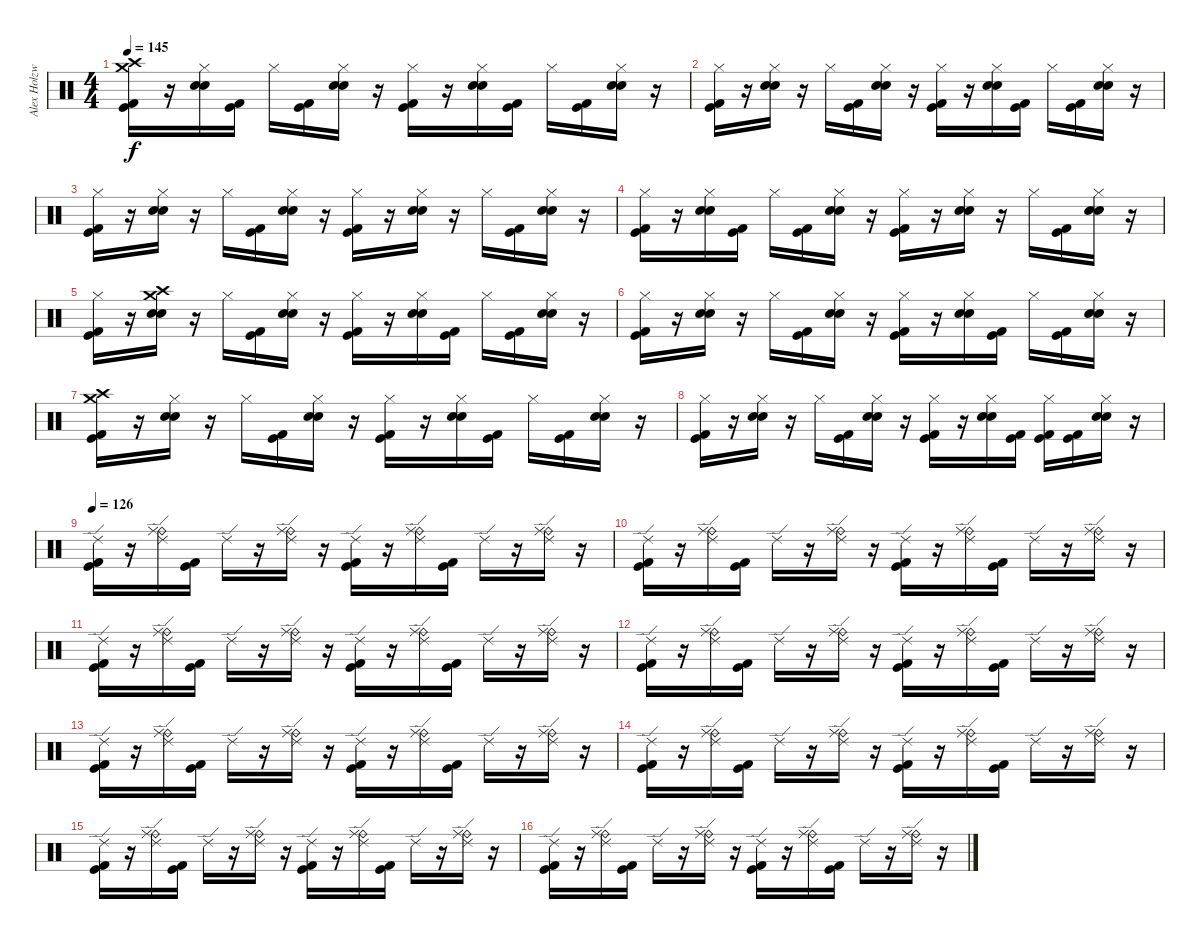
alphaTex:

\track ("Alex Holzwarth" "Alex Holzw") {instrument percussion}
\staff {score}
\articulation defaults
\ts (4 4)
\tempo 145
\clef neutral
\ks c
("Crash medium (hit)" "Crash high (hit)" "Kick (hit) 2" "Kick (hit)").16{dy f} r.16 ("Hi-Hat (closed)" "Electric Snare (hit)" "Snare (hit) 2").16 ("Kick (hit) 2" "Kick (hit)").16 "Hi-Hat (closed)".16 ("Kick (hit) 2" "Kick (hit)").16 ("Electric Snare (hit)" "Snare (hit) 2" "Hi-Hat (closed)").16 r.16 ("Hi-Hat (closed)" "Kick (hit) 2" "Kick (hit)").16 r.16 ("Hi-Hat (closed)" "Electric Snare (hit)" "Snare (hit) 2").16 ("Kick (hit) 2" "Kick (hit)").16 "Hi-Hat (closed)".16 ("Kick (hit) 2" "Kick (hit)").16 ("Electric Snare (hit)" "Snare (hit) 2" "Hi-Hat (closed)").16 r.16 |
("Hi-Hat (closed)" "Kick (hit) 2" "Kick (hit)").16 r.16 ("Hi-Hat (closed)" "Electric Snare (hit)" "Snare (hit) 2").16 r.16 "Hi-Hat (closed)".16 ("Kick (hit) 2" "Kick (hit)").16 ("Electric Snare (hit)" "Snare (hit) 2" "Hi-Hat (closed)").16 r.16 ("Hi-Hat (closed)" "Kick (hit) 2" "Kick (hit)").16 r.16 ("Hi-Hat (closed)" "Electric Snare (hit)" "Snare (hit) 2").16 ("Kick (hit) 2" "Kick (hit)").16 "Hi-Hat (closed)".16 ("Kick (hit) 2" "Kick (hit)").16 ("Electric Snare (hit)" "Snare (hit) 2" "Hi-Hat (closed)").16 r.16 |
("Hi-Hat (closed)" "Kick (hit) 2" "Kick (hit)").16 r.16 ("Hi-Hat (closed)" "Electric Snare (hit)" "Snare (hit) 2").16 r.16 "Hi-Hat (closed)".16 ("Kick (hit) 2" "Kick (hit)").16 ("Electric Snare (hit)" "Snare (hit) 2" "Hi-Hat (closed)").16 r.16 ("Hi-Hat (closed)" "Kick (hit) 2" "Kick (hit)").16 r.16 ("Hi-Hat (closed)" "Electric Snare (hit)" "Snare (hit) 2").16 r.16 "Hi-Hat (closed)".16 ("Kick (hit) 2" "Kick (hit)").16 ("Electric Snare (hit)" "Snare (hit) 2" "Hi-Hat (closed)").16 r.16 |
("Hi-Hat (closed)" "Kick (hit) 2" "Kick (hit)").16 r.16 ("Hi-Hat (closed)" "Electric Snare (hit)" "Snare (hit) 2").16 ("Kick (hit) 2" "Kick (hit)").16 "Hi-Hat (closed)".16 ("Kick (hit) 2" "Kick (hit)").16 ("Electric Snare (hit)" "Snare (hit) 2" "Hi-Hat (closed)").16 r.16 ("Hi-Hat (closed)" "Kick (hit) 2" "Kick (hit)").16 r.16 ("Hi-Hat (closed)" "Electric Snare (hit)" "Snare (hit) 2").16 r.16 "Hi-Hat (closed)".16 ("Kick (hit) 2" "Kick (hit)").16 ("Electric Snare (hit)" "Snare (hit) 2" "Hi-Hat (closed)").16 r.16 |
("Hi-Hat (closed)" "Kick (hit) 2" "Kick (hit)").16 r.16 ("Crash high (hit)" "Crash medium (hit)" "Electric Snare (hit)" "Snare (hit) 2").16 r.16 "Hi-Hat (closed)".16 ("Kick (hit) 2" "Kick (hit)").16 ("Electric Snare (hit)" "Snare (hit) 2" "Hi-Hat (closed)").16 r.16 ("Hi-Hat (closed)" "Kick (hit) 2" "Kick (hit)").16 r.16 ("Hi-Hat (closed)" "Electric Snare (hit)" "Snare (hit) 2").16 ("Kick (hit) 2" "Kick (hit)").16 "Hi-Hat (closed)".16 ("Kick (hit) 2" "Kick (hit)").16 ("Electric Snare (hit)" "Snare (hit) 2" "Hi-Hat (closed)").16 r.16 |
("Hi-Hat (closed)" "Kick (hit) 2" "Kick (hit)").16 r.16 ("Hi-Hat (closed)" "Electric Snare (hit)" "Snare (hit) 2").16 r.16 "Hi-Hat (closed)".16 ("Kick (hit) 2" "Kick (hit)").16 ("Electric Snare (hit)" "Snare (hit) 2" "Hi-Hat (closed)").16 r.16 ("Hi-Hat (closed)" "Kick (hit) 2" "Kick (hit)").16 r.16 ("Hi-Hat (closed)" "Electric Snare (hit)" "Snare (hit) 2").16 ("Kick (hit) 2" "Kick (hit)").16 "Hi-Hat (closed)".16 ("Kick (hit) 2" "Kick (hit)").16 ("Electric Snare (hit)" "Snare (hit) 2" "Hi-Hat (closed)").16 r.16 |
("Crash high (hit)" "Crash medium (hit)" "Kick (hit) 2" "Kick (hit)").16 r.16 ("Hi-Hat (closed)" "Electric Snare (hit)" "Snare (hit) 2").16 r.16 "Hi-Hat (closed)".16 ("Kick (hit) 2" "Kick (hit)").16 ("Electric Snare (hit)" "Snare (hit) 2" "Hi-Hat (closed)").16 r.16 ("Hi-Hat (closed)" "Kick (hit) 2" "Kick (hit)").16 r.16 ("Hi-Hat (closed)" "Electric Snare (hit)" "Snare (hit) 2").16 ("Kick (hit) 2" "Kick (hit)").16 "Hi-Hat (closed)".16 ("Kick (hit) 2" "Kick (hit)").16 ("Electric Snare (hit)" "Snare (hit) 2" "Hi-Hat (closed)").16 r.16 |
("Hi-Hat (closed)" "Kick (hit) 2" "Kick (hit)").16 r.16 ("Hi-Hat (closed)" "Electric Snare (hit)" "Snare (hit) 2").16 r.16 "Hi-Hat (closed)".16 ("Kick (hit) 2" "Kick (hit)").16 ("Electric Snare (hit)" "Snare (hit) 2" "Hi-Hat (closed)").16 r.16 ("Hi-Hat (closed)" "Kick (hit) 2" "Kick (hit)").16 r.16 ("Hi-Hat (closed)" "Electric Snare (hit)" "Snare (hit) 2").16 ("Kick (hit) 2" "Kick (hit)").16 ("Hi-Hat (closed)" "Kick (hit) 2" "Kick (hit)").16 ("Kick (hit) 2" "Kick (hit)").16 ("Hi-Hat (closed)" "Electric Snare (hit)" "Snare (hit) 2").16 r.16 |
\tempo 126
("Ride (edge) 2" "Kick (hit) 2" "Kick (hit)").16 r.16 ("Ride (bell)" "Ride (middle)" "Ride (edge) 2").16 ("Kick (hit) 2" "Kick (hit)").16 "Ride (edge) 2".16 r.16 ("Ride (bell)" "Ride (middle)" "Ride (edge) 2").16 r.16 ("Ride (edge) 2" "Kick (hit) 2" "Kick (hit)").16 r.16 ("Ride (bell)" "Ride (middle)" "Ride (edge) 2").16 ("Kick (hit) 2" "Kick (hit)").16 "Ride (edge) 2".16 r.16 ("Ride (bell)" "Ride (middle)" "Ride (edge) 2").16 r.16 |
("Ride (edge) 2" "Kick (hit) 2" "Kick (hit)").16 r.16 ("Ride (bell)" "Ride (middle)" "Ride (edge) 2").16 ("Kick (hit) 2" "Kick (hit)").16 "Ride (edge) 2".16 r.16 ("Ride (bell)" "Ride (middle)" "Ride (edge) 2").16 r.16 ("Ride (edge) 2" "Kick (hit) 2" "Kick (hit)").16 r.16 ("Ride (bell)" "Ride (middle)" "Ride (edge) 2").16 ("Kick (hit) 2" "Kick (hit)").16 "Ride (edge) 2".16 r.16 ("Ride (bell)" "Ride (middle)" "Ride (edge) 2").16 r.16 |
("Ride (edge) 2" "Kick (hit) 2" "Kick (hit)").16 r.16 ("Ride (bell)" "Ride (middle)" "Ride (edge) 2").16 ("Kick (hit) 2" "Kick (hit)").16 "Ride (edge) 2".16 r.16 ("Ride (bell)" "Ride (middle)" "Ride (edge) 2").16 r.16 ("Ride (edge) 2" "Kick (hit) 2" "Kick (hit)").16 r.16 ("Ride (bell)" "Ride (middle)" "Ride (edge) 2").16 ("Kick (hit) 2" "Kick (hit)").16 "Ride (edge) 2".16 r.16 ("Ride (bell)" "Ride (middle)" "Ride (edge) 2").16 r.16 |
("Ride (edge) 2" "Kick (hit) 2" "Kick (hit)").16 r.16 ("Ride (bell)" "Ride (middle)" "Ride (edge) 2").16 ("Kick (hit) 2" "Kick (hit)").16 "Ride (edge) 2".16 r.16 ("Ride (bell)" "Ride (middle)" "Ride (edge) 2").16 r.16 ("Ride (edge) 2" "Kick (hit) 2" "Kick (hit)").16 r.16 ("Ride (bell)" "Ride (middle)" "Ride (edge) 2").16 ("Kick (hit) 2" "Kick (hit)").16 "Ride (edge) 2".16 r.16 ("Ride (bell)" "Ride (middle)" "Ride (edge) 2").16 r.16 |
("Ride (edge) 2" "Kick (hit) 2" "Kick (hit)").16 r.16 ("Ride (bell)" "Ride (middle)" "Ride (edge) 2").16 ("Kick (hit) 2" "Kick (hit)").16 "Ride (edge) 2".16 r.16 ("Ride (bell)" "Ride (middle)" "Ride (edge) 2").16 r.16 ("Ride (edge) 2" "Kick (hit) 2" "Kick (hit)").16 r.16 ("Ride (bell)" "Ride (middle)" "Ride (edge) 2").16 ("Kick (hit) 2" "Kick (hit)").16 "Ride (edge) 2".16 r.16 ("Ride (bell)" "Ride (middle)" "Ride (edge) 2").16 r.16 |
("Ride (edge) 2" "Kick (hit) 2" "Kick (hit)").16 r.16 ("Ride (bell)" "Ride (middle)" "Ride (edge) 2").16 ("Kick (hit) 2" "Kick (hit)").16 "Ride (edge) 2".16 r.16 ("Ride (bell)" "Ride (middle)" "Ride (edge) 2").16 r.16 ("Ride (edge) 2" "Kick (hit) 2" "Kick (hit)").16 r.16 ("Ride (bell)" "Ride (middle)" "Ride (edge) 2").16 ("Kick (hit) 2" "Kick (hit)").16 "Ride (edge) 2".16 r.16 ("Ride (bell)" "Ride (middle)" "Ride (edge) 2").16 r.16 |
("Ride (edge) 2" "Kick (hit) 2" "Kick (hit)").16 r.16 ("Ride (bell)" "Ride (middle)" "Ride (edge) 2").16 ("Kick (hit) 2" "Kick (hit)").16 "Ride (edge) 2".16 r.16 ("Ride (bell)" "Ride (middle)" "Ride (edge) 2").16 r.16 ("Ride (edge) 2" "Kick (hit) 2" "Kick (hit)").16 r.16 ("Ride (bell)" "Ride (middle)" "Ride (edge) 2").16 ("Kick (hit) 2" "Kick (hit)").16 "Ride (edge) 2".16 r.16 ("Ride (bell)" "Ride (middle)" "Ride (edge) 2").16 r.16 |
("Ride (edge) 2" "Kick (hit) 2" "Kick (hit)").16 r.16 ("Ride (bell)" "Ride (middle)" "Ride (edge) 2").16 ("Kick (hit) 2" "Kick (hit)").16 "Ride (edge) 2".16 r.16 ("Ride (bell)" "Ride (middle)" "Ride (edge) 2").16 r.16 ("Ride (edge) 2" "Kick (hit) 2" "Kick (hit)").16 r.16 ("Ride (bell)" "Ride (middle)" "Ride (edge) 2").16 ("Kick (hit) 2" "Kick (hit)").16 "Ride (edge) 2".16 r.16 ("Ride (bell)" "Ride (middle)" "Ride (edge) 2").16 r.16
